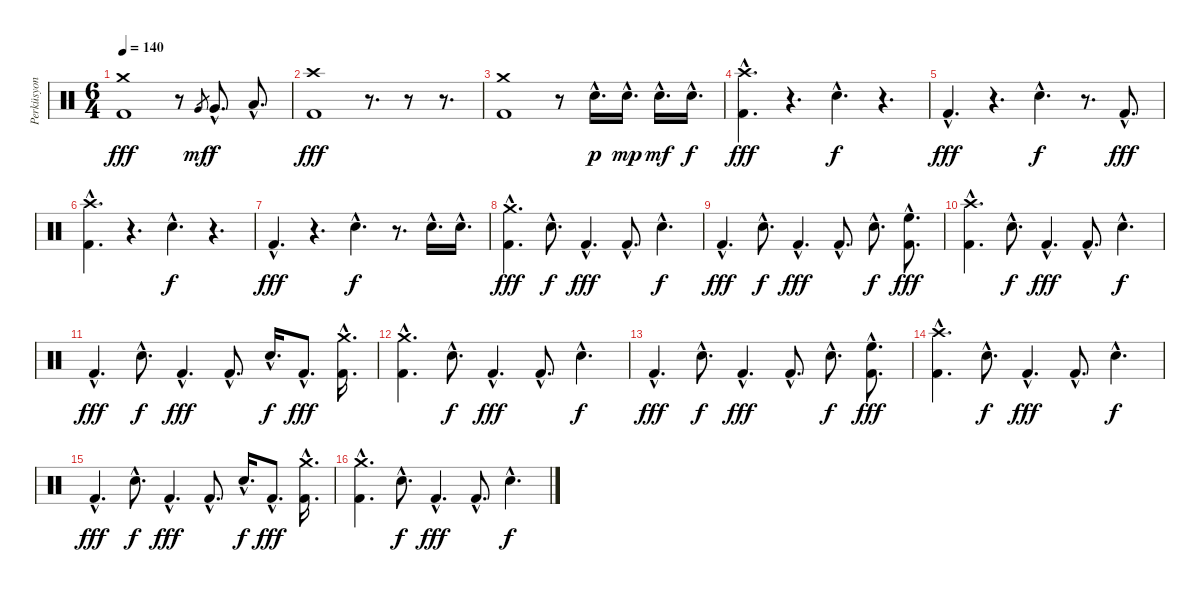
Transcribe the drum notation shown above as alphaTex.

\track ("Perküsyon" "Perküsyon") {instrument percussion}
\staff {score}
\articulation defaults
\ts (6 4)
\tempo 140
\clef neutral
\ks c
("Crash medium (hit)" "Kick (hit) 2").1{dy fff} r.8 "Very Low Tom (hit)".8{gr dy mf} "Very Low Tom (hit)"{hac}.8{d dy f} "Low Floor Tom (hit)"{hac}.8{d} |
("Crash high (hit)" "Kick (hit) 2").1{dy fff} r.8{d} r.8 r.8{d} |
("Crash medium (hit)" "Kick (hit) 2").1 r.8 "Snare (hit) 2"{hac}.16{d dy p} "Electric Snare (hit)"{hac}.16{d dy mp} "Snare (hit) 2"{hac}.16{d dy mf} "Snare (hit) 2"{hac}.16{d dy f} |
("Crash high (hit)"{hac} "Kick (hit) 2"{hac}).4{d dy fff} r.4{d} "Snare (hit) 2"{hac}.4{d dy f} r.4{d} |
"Kick (hit) 2"{hac}.4{d dy fff} r.4{d} "Snare (hit) 2"{hac}.4{d dy f} r.8{d} "Kick (hit) 2"{hac}.8{d dy fff} |
("Crash high (hit)"{hac} "Kick (hit) 2"{hac}).4{d} r.4{d} "Snare (hit) 2"{hac}.4{d dy f} r.4{d} |
"Kick (hit) 2"{hac}.4{d dy fff} r.4{d} "Snare (hit) 2"{hac}.4{d dy f} r.8{d} "Snare (hit) 2"{hac}.16{d} "Electric Snare (hit)"{hac}.16{d} |
("Crash medium (hit)"{hac} "Kick (hit) 2"{hac}).4{d dy fff volume 14} "Electric Snare (hit)"{hac}.8{d dy f} "Kick (hit) 2"{hac}.4{d dy fff} "Kick (hit) 2"{hac}.8{d} "Electric Snare (hit)"{hac}.4{d dy f} |
"Kick (hit) 2"{hac}.4{d dy fff} "Electric Snare (hit)"{hac}.8{d dy f} "Kick (hit) 2"{hac}.4{d dy fff} "Kick (hit) 2"{hac}.8{d} "Electric Snare (hit)"{hac}.8{d dy f} ("High Floor Tom (hit)"{hac} "Kick (hit) 2"{hac}).8{d dy fff} |
("Crash high (hit)"{hac} "Kick (hit) 2"{hac}).4{d} "Electric Snare (hit)"{hac}.8{d dy f} "Kick (hit) 2"{hac}.4{d dy fff} "Kick (hit) 2"{hac}.8{d} "Electric Snare (hit)"{hac}.4{d dy f} |
"Kick (hit) 2"{hac}.4{d dy fff} "Electric Snare (hit)"{hac}.8{d dy f} "Kick (hit) 2"{hac}.4{d dy fff} "Kick (hit) 2"{hac}.8{d} "Electric Snare (hit)"{hac}.16{d dy f} "Kick (hit) 2"{hac}.8{d dy fff} ("Crash medium (hit)"{hac} "Kick (hit) 2"{hac}).16{d} |
("Crash medium (hit)"{hac} "Kick (hit) 2"{hac}).4{d volume 14} "Electric Snare (hit)"{hac}.8{d dy f} "Kick (hit) 2"{hac}.4{d dy fff} "Kick (hit) 2"{hac}.8{d} "Electric Snare (hit)"{hac}.4{d dy f} |
"Kick (hit) 2"{hac}.4{d dy fff} "Electric Snare (hit)"{hac}.8{d dy f} "Kick (hit) 2"{hac}.4{d dy fff} "Kick (hit) 2"{hac}.8{d} "Electric Snare (hit)"{hac}.8{d dy f} ("High Floor Tom (hit)"{hac} "Kick (hit) 2"{hac}).8{d dy fff} |
("Crash high (hit)"{hac} "Kick (hit) 2"{hac}).4{d} "Electric Snare (hit)"{hac}.8{d dy f} "Kick (hit) 2"{hac}.4{d dy fff} "Kick (hit) 2"{hac}.8{d} "Electric Snare (hit)"{hac}.4{d dy f} |
"Kick (hit) 2"{hac}.4{d dy fff} "Electric Snare (hit)"{hac}.8{d dy f} "Kick (hit) 2"{hac}.4{d dy fff} "Kick (hit) 2"{hac}.8{d} "Electric Snare (hit)"{hac}.16{d dy f} "Kick (hit) 2"{hac}.8{d dy fff} ("Crash medium (hit)"{hac} "Kick (hit) 2"{hac}).16{d} |
("Crash medium (hit)"{hac} "Kick (hit) 2"{hac}).4{d} "Electric Snare (hit)"{hac}.8{d dy f} "Kick (hit) 2"{hac}.4{d dy fff} "Kick (hit) 2"{hac}.8{d} "Electric Snare (hit)"{hac}.4{d dy f}
